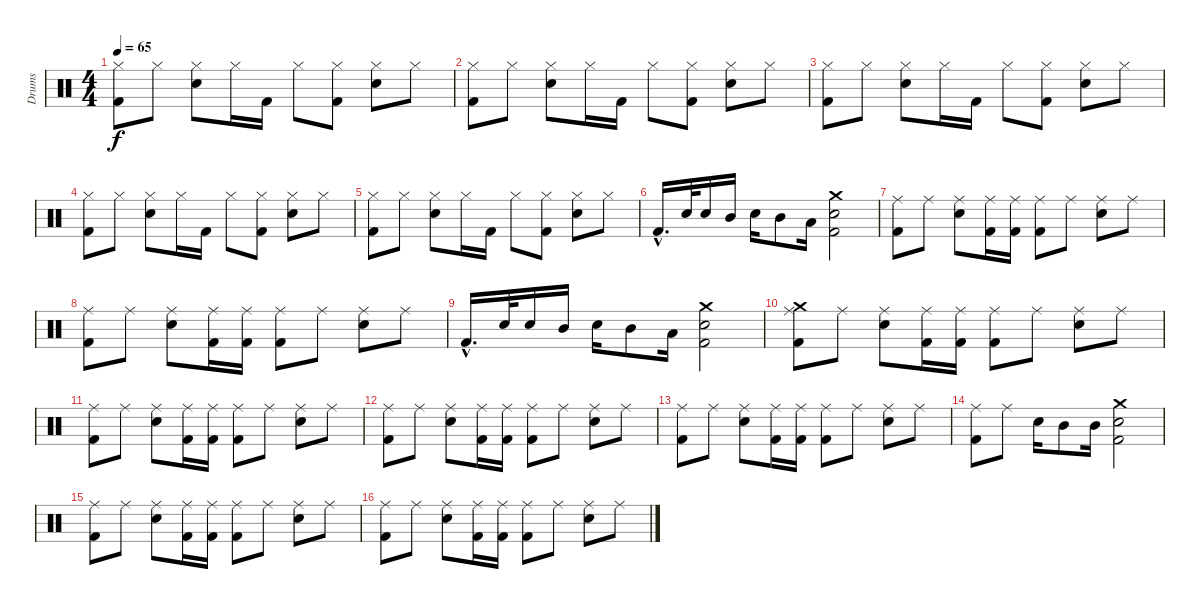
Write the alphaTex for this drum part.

\track ("Drums" "Drums") {instrument percussion}
\staff {score}
\articulation defaults
\ts (4 4)
\tempo 65
\clef neutral
\ks c
("Hi-Hat (closed)" "Kick (hit) 2").8{dy f} "Hi-Hat (closed)".8 ("Hi-Hat (closed)" "Electric Snare (hit)").8 "Hi-Hat (closed)".16 "Kick (hit) 2".16 "Hi-Hat (closed)".8 ("Hi-Hat (closed)" "Kick (hit) 2").8 ("Hi-Hat (closed)" "Electric Snare (hit)").8 "Hi-Hat (closed)".8 |
("Hi-Hat (closed)" "Kick (hit) 2").8 "Hi-Hat (closed)".8 ("Hi-Hat (closed)" "Electric Snare (hit)").8 "Hi-Hat (closed)".16 "Kick (hit) 2".16 "Hi-Hat (closed)".8 ("Hi-Hat (closed)" "Kick (hit) 2").8 ("Hi-Hat (closed)" "Electric Snare (hit)").8 "Hi-Hat (closed)".8 |
("Hi-Hat (closed)" "Kick (hit) 2").8 "Hi-Hat (closed)".8 ("Hi-Hat (closed)" "Electric Snare (hit)").8 "Hi-Hat (closed)".16 "Kick (hit) 2".16 "Hi-Hat (closed)".8 ("Hi-Hat (closed)" "Kick (hit) 2").8 ("Hi-Hat (closed)" "Electric Snare (hit)").8 "Hi-Hat (closed)".8 |
("Hi-Hat (closed)" "Kick (hit) 2").8 "Hi-Hat (closed)".8 ("Hi-Hat (closed)" "Electric Snare (hit)").8 "Hi-Hat (closed)".16 "Kick (hit) 2".16 "Hi-Hat (closed)".8 ("Hi-Hat (closed)" "Kick (hit) 2").8 ("Hi-Hat (closed)" "Electric Snare (hit)").8 "Hi-Hat (closed)".8 |
("Hi-Hat (closed)" "Kick (hit) 2").8 "Hi-Hat (closed)".8 ("Hi-Hat (closed)" "Electric Snare (hit)").8 "Hi-Hat (closed)".16 "Kick (hit) 2".16 "Hi-Hat (closed)".8 ("Hi-Hat (closed)" "Kick (hit) 2").8 ("Hi-Hat (closed)" "Electric Snare (hit)").8 "Hi-Hat (closed)".8 |
"Kick (hit) 2"{hac}.16{d} "Electric Snare (hit)".32 "Electric Snare (hit)".16 "Mid Tom (hit)".16 "Electric Snare (hit)".16 "Mid Tom (hit)".8 "Low Tom (hit)".16 ("Crash medium (hit)" "Electric Snare (hit)" "Kick (hit) 2").2 |
("Ride (middle)" "Kick (hit) 2").8 "Ride (middle)".8 ("Ride (middle)" "Electric Snare (hit)").8 ("Ride (middle)" "Kick (hit) 2").16 ("Ride (middle)" "Kick (hit) 2").16 ("Ride (middle)" "Kick (hit) 2").8 "Ride (middle)".8 ("Ride (middle)" "Electric Snare (hit)").8 "Ride (middle)".8 |
("Ride (middle)" "Kick (hit) 2").8 "Ride (middle)".8 ("Ride (middle)" "Electric Snare (hit)").8 ("Ride (middle)" "Kick (hit) 2").16 ("Ride (middle)" "Kick (hit) 2").16 ("Ride (middle)" "Kick (hit) 2").8 "Ride (middle)".8 ("Ride (middle)" "Electric Snare (hit)").8 "Ride (middle)".8 |
"Kick (hit) 2"{hac}.16{d} "Electric Snare (hit)".32 "Electric Snare (hit)".16 "Mid Tom (hit)".16 "Electric Snare (hit)".16 "Mid Tom (hit)".8 "Low Tom (hit)".16 ("Crash medium (hit)" "Electric Snare (hit)" "Kick (hit) 2").2 |
("Crash medium (hit)" "Ride (middle)" "Kick (hit) 2").8 "Ride (middle)".8 ("Ride (middle)" "Electric Snare (hit)").8 ("Ride (middle)" "Kick (hit) 2").16 ("Ride (middle)" "Kick (hit) 2").16 ("Ride (middle)" "Kick (hit) 2").8 "Ride (middle)".8 ("Ride (middle)" "Electric Snare (hit)").8 "Ride (middle)".8 |
("Ride (middle)" "Kick (hit) 2").8 "Ride (middle)".8 ("Ride (middle)" "Electric Snare (hit)").8 ("Ride (middle)" "Kick (hit) 2").16 ("Ride (middle)" "Kick (hit) 2").16 ("Ride (middle)" "Kick (hit) 2").8 "Ride (middle)".8 ("Ride (middle)" "Electric Snare (hit)").8 "Ride (middle)".8 |
("Ride (middle)" "Kick (hit) 2").8 "Ride (middle)".8 ("Ride (middle)" "Electric Snare (hit)").8 ("Ride (middle)" "Kick (hit) 2").16 ("Ride (middle)" "Kick (hit) 2").16 ("Ride (middle)" "Kick (hit) 2").8 "Ride (middle)".8 ("Ride (middle)" "Electric Snare (hit)").8 "Ride (middle)".8 |
("Ride (middle)" "Kick (hit) 2").8 "Ride (middle)".8 ("Ride (middle)" "Electric Snare (hit)").8 ("Ride (middle)" "Kick (hit) 2").16 ("Ride (middle)" "Kick (hit) 2").16 ("Ride (middle)" "Kick (hit) 2").8 "Ride (middle)".8 ("Ride (middle)" "Electric Snare (hit)").8 "Ride (middle)".8 |
("Ride (middle)" "Kick (hit) 2").8 "Ride (middle)".8 "Electric Snare (hit)".16 "Mid Tom (hit)".8 "Mid Tom (hit)".16 ("Crash medium (hit)" "Electric Snare (hit)" "Kick (hit) 2").2 |
("Ride (middle)" "Kick (hit) 2").8 "Ride (middle)".8 ("Ride (middle)" "Electric Snare (hit)").8 ("Ride (middle)" "Kick (hit) 2").16 ("Ride (middle)" "Kick (hit) 2").16 ("Ride (middle)" "Kick (hit) 2").8 "Ride (middle)".8 ("Ride (middle)" "Electric Snare (hit)").8 "Ride (middle)".8 |
("Ride (middle)" "Kick (hit) 2").8 "Ride (middle)".8 ("Ride (middle)" "Electric Snare (hit)").8 ("Ride (middle)" "Kick (hit) 2").16 ("Ride (middle)" "Kick (hit) 2").16 ("Ride (middle)" "Kick (hit) 2").8 "Ride (middle)".8 ("Ride (middle)" "Electric Snare (hit)").8 "Ride (middle)".8
